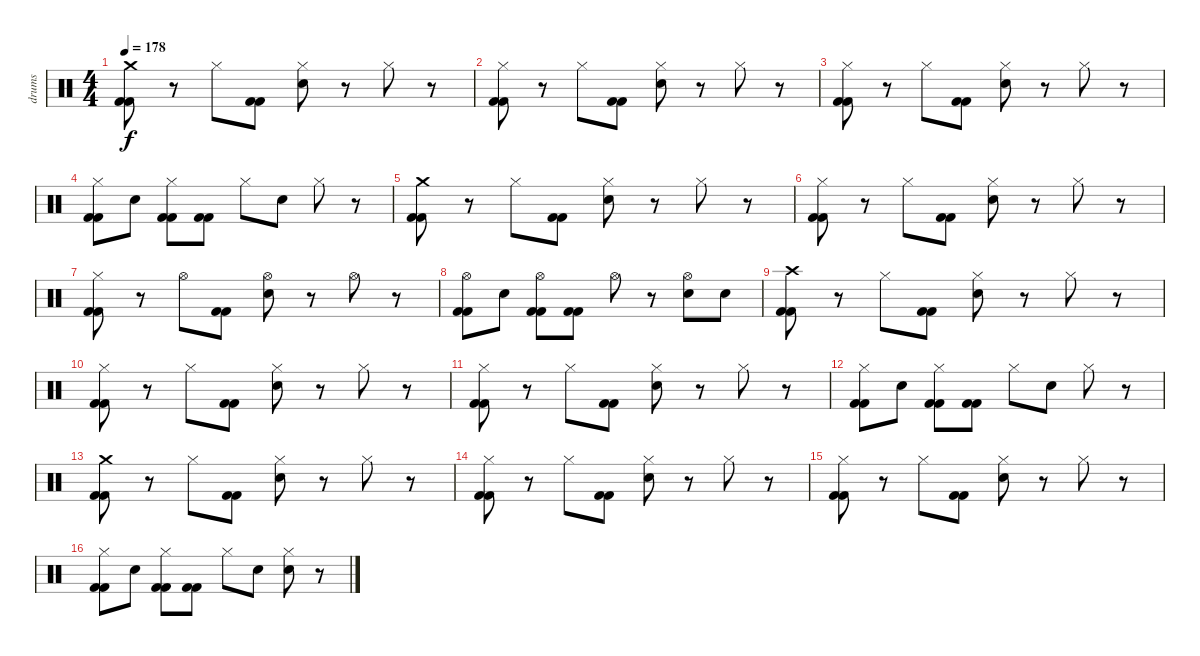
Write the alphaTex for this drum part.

\track ("drums" "drums") {instrument percussion}
\staff {score}
\articulation defaults
\ts (4 4)
\tempo 178
\clef neutral
\ks c
("Crash medium (hit)" "Kick (hit) 2" "Kick (hit) 2").8{dy f} r.8 "Hi-Hat (closed)".8 ("Kick (hit) 2" "Kick (hit) 2").8 ("Hi-Hat (closed)" "Electric Snare (hit)").8 r.8 "Hi-Hat (closed)".8 r.8 |
("Hi-Hat (closed)" "Kick (hit) 2" "Kick (hit) 2").8 r.8 "Hi-Hat (closed)".8 ("Kick (hit) 2" "Kick (hit) 2").8 ("Hi-Hat (closed)" "Electric Snare (hit)").8 r.8 "Hi-Hat (closed)".8 r.8 |
("Hi-Hat (closed)" "Kick (hit) 2" "Kick (hit) 2").8 r.8 "Hi-Hat (closed)".8 ("Kick (hit) 2" "Kick (hit) 2").8 ("Hi-Hat (closed)" "Electric Snare (hit)").8 r.8 "Hi-Hat (closed)".8 r.8 |
("Hi-Hat (closed)" "Kick (hit) 2" "Kick (hit) 2").8 "Electric Snare (hit)".8 ("Hi-Hat (closed)" "Kick (hit) 2" "Kick (hit) 2").8 ("Kick (hit) 2" "Kick (hit) 2").8 "Hi-Hat (closed)".8 "Electric Snare (hit)".8 "Hi-Hat (closed)".8 r.8 |
("Crash medium (hit)" "Kick (hit) 2" "Kick (hit) 2").8 r.8 "Hi-Hat (closed)".8 ("Kick (hit) 2" "Kick (hit) 2").8 ("Hi-Hat (closed)" "Electric Snare (hit)").8 r.8 "Hi-Hat (closed)".8 r.8 |
("Hi-Hat (closed)" "Kick (hit) 2" "Kick (hit) 2").8 r.8 "Hi-Hat (closed)".8 ("Kick (hit) 2" "Kick (hit) 2").8 ("Hi-Hat (closed)" "Electric Snare (hit)").8 r.8 "Hi-Hat (closed)".8 r.8 |
("Hi-Hat (closed)" "Kick (hit) 2" "Kick (hit) 2").8 r.8 "Hi-Hat (open)".8 ("Kick (hit) 2" "Kick (hit) 2").8 ("Hi-Hat (open)" "Electric Snare (hit)").8 r.8 "Hi-Hat (open)".8 r.8 |
("Hi-Hat (open)" "Kick (hit) 2" "Kick (hit) 2").8 "Electric Snare (hit)".8 ("Hi-Hat (open)" "Kick (hit) 2" "Kick (hit) 2").8 ("Kick (hit) 2" "Kick (hit) 2").8 "Hi-Hat (open)".8 r.8 ("Hi-Hat (open)" "Electric Snare (hit)").8 "Electric Snare (hit)".8 |
("Crash high (hit)" "Kick (hit) 2" "Kick (hit) 2").8 r.8 "Hi-Hat (closed)".8 ("Kick (hit) 2" "Kick (hit) 2").8 ("Hi-Hat (closed)" "Electric Snare (hit)").8 r.8 "Hi-Hat (closed)".8 r.8 |
("Hi-Hat (closed)" "Kick (hit) 2" "Kick (hit) 2").8 r.8 "Hi-Hat (closed)".8 ("Kick (hit) 2" "Kick (hit) 2").8 ("Hi-Hat (closed)" "Electric Snare (hit)").8 r.8 "Hi-Hat (closed)".8 r.8 |
("Hi-Hat (closed)" "Kick (hit) 2" "Kick (hit) 2").8 r.8 "Hi-Hat (closed)".8 ("Kick (hit) 2" "Kick (hit) 2").8 ("Hi-Hat (closed)" "Electric Snare (hit)").8 r.8 "Hi-Hat (closed)".8 r.8 |
("Hi-Hat (closed)" "Kick (hit) 2" "Kick (hit) 2").8 "Electric Snare (hit)".8 ("Hi-Hat (closed)" "Kick (hit) 2" "Kick (hit) 2").8 ("Kick (hit) 2" "Kick (hit) 2").8 "Hi-Hat (closed)".8 "Electric Snare (hit)".8 "Hi-Hat (closed)".8 r.8 |
("Crash medium (hit)" "Kick (hit) 2" "Kick (hit) 2").8 r.8 "Hi-Hat (closed)".8 ("Kick (hit) 2" "Kick (hit) 2").8 ("Hi-Hat (closed)" "Electric Snare (hit)").8 r.8 "Hi-Hat (closed)".8 r.8 |
("Hi-Hat (closed)" "Kick (hit) 2" "Kick (hit) 2").8 r.8 "Hi-Hat (closed)".8 ("Kick (hit) 2" "Kick (hit) 2").8 ("Hi-Hat (closed)" "Electric Snare (hit)").8 r.8 "Hi-Hat (closed)".8 r.8 |
("Hi-Hat (closed)" "Kick (hit) 2" "Kick (hit) 2").8 r.8 "Hi-Hat (closed)".8 ("Kick (hit) 2" "Kick (hit) 2").8 ("Hi-Hat (closed)" "Electric Snare (hit)").8 r.8 "Hi-Hat (closed)".8 r.8 |
("Hi-Hat (closed)" "Kick (hit) 2" "Kick (hit) 2").8 "Electric Snare (hit)".8 ("Hi-Hat (closed)" "Kick (hit) 2" "Kick (hit) 2").8 ("Kick (hit) 2" "Kick (hit) 2").8 "Hi-Hat (closed)".8 "Electric Snare (hit)".8 ("Hi-Hat (closed)" "Electric Snare (hit)").8 r.8
